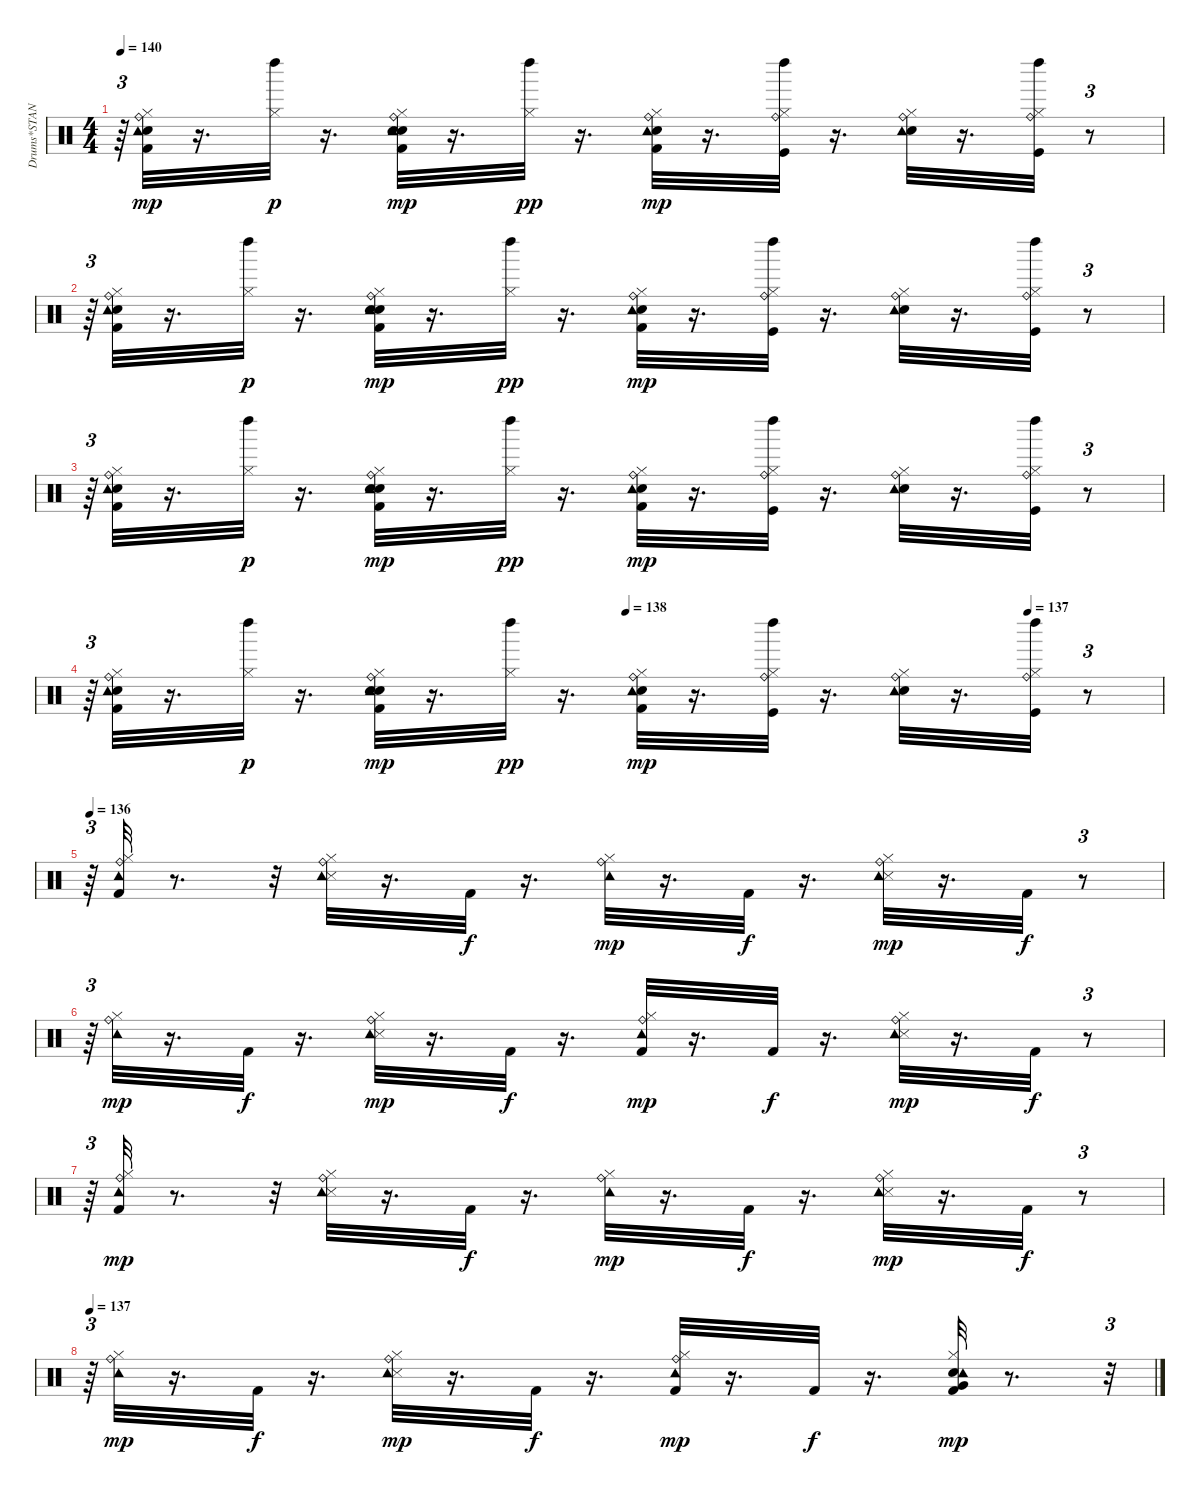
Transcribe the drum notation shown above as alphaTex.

\track ("Drums*STANDARD      " "Drums*STAN") {instrument percussion}
\staff {score}
\articulation defaults
\ts (4 4)
\tempo 140
\clef neutral
\ks c
r.64{tu (3 2) dy mp} ("Kick (hit) 2" "Snare (hit) 2" "Hi-Hat (closed)" "Ride (bell)" "Tambourine (hit)").32 r.16{d} ("Hi-Hat (closed)" "Left Maraca (hit)").32{dy p} r.16{d} ("Kick (hit) 2" "Snare (hit) 2" "Hi-Hat (closed)" "Hand Clap (hit)" "Ride (bell)" "Tambourine (hit)").32{dy mp} r.16{d} ("Hi-Hat (closed)" "Left Maraca (hit)").32{dy pp} r.16{d} ("Kick (hit) 2" "Snare (hit) 2" "Hi-Hat (closed)" "Ride (bell)" "Tambourine (hit)").32{dy mp} r.16{d} ("Hi-Hat (closed)" "Left Maraca (hit)" "Kick (hit)" "Ride (bell)").32 r.16{d} ("Snare (hit) 2" "Hi-Hat (closed)" "Ride (bell)" "Tambourine (hit)").32 r.16{d} ("Hi-Hat (closed)" "Left Maraca (hit)" "Kick (hit)" "Ride (bell)").32 r.8{tu (3 2)} |
r.64{tu (3 2)} ("Kick (hit) 2" "Snare (hit) 2" "Hi-Hat (closed)" "Ride (bell)" "Tambourine (hit)").32 r.16{d} ("Hi-Hat (closed)" "Left Maraca (hit)").32{dy p} r.16{d} ("Kick (hit) 2" "Snare (hit) 2" "Hi-Hat (closed)" "Hand Clap (hit)" "Ride (bell)" "Tambourine (hit)").32{dy mp} r.16{d} ("Hi-Hat (closed)" "Left Maraca (hit)").32{dy pp} r.16{d} ("Kick (hit) 2" "Snare (hit) 2" "Hi-Hat (closed)" "Ride (bell)" "Tambourine (hit)").32{dy mp} r.16{d} ("Hi-Hat (closed)" "Left Maraca (hit)" "Kick (hit)" "Ride (bell)").32 r.16{d} ("Snare (hit) 2" "Hi-Hat (closed)" "Ride (bell)" "Tambourine (hit)").32 r.16{d} ("Hi-Hat (closed)" "Left Maraca (hit)" "Kick (hit)" "Ride (bell)").32 r.8{tu (3 2)} |
r.64{tu (3 2)} ("Kick (hit) 2" "Snare (hit) 2" "Hi-Hat (closed)" "Ride (bell)" "Tambourine (hit)").32 r.16{d} ("Hi-Hat (closed)" "Left Maraca (hit)").32{dy p} r.16{d} ("Kick (hit) 2" "Snare (hit) 2" "Hi-Hat (closed)" "Hand Clap (hit)" "Ride (bell)" "Tambourine (hit)").32{dy mp} r.16{d} ("Hi-Hat (closed)" "Left Maraca (hit)").32{dy pp} r.16{d} ("Kick (hit) 2" "Snare (hit) 2" "Hi-Hat (closed)" "Ride (bell)" "Tambourine (hit)").32{dy mp} r.16{d} ("Hi-Hat (closed)" "Left Maraca (hit)" "Kick (hit)" "Ride (bell)").32 r.16{d} ("Snare (hit) 2" "Hi-Hat (closed)" "Ride (bell)" "Tambourine (hit)").32 r.16{d} ("Hi-Hat (closed)" "Left Maraca (hit)" "Kick (hit)" "Ride (bell)").32 r.8{tu (3 2)} |
\tempo (138 0.5)
\tempo (137 0.875)
r.64{tu (3 2)} ("Kick (hit) 2" "Snare (hit) 2" "Hi-Hat (closed)" "Ride (bell)" "Tambourine (hit)").32 r.16{d} ("Hi-Hat (closed)" "Left Maraca (hit)").32{dy p} r.16{d} ("Kick (hit) 2" "Snare (hit) 2" "Hi-Hat (closed)" "Hand Clap (hit)" "Ride (bell)" "Tambourine (hit)").32{dy mp} r.16{d} ("Hi-Hat (closed)" "Left Maraca (hit)").32{dy pp} r.16{d} ("Kick (hit) 2" "Snare (hit) 2" "Hi-Hat (closed)" "Ride (bell)" "Tambourine (hit)").32{dy mp} r.16{d} ("Hi-Hat (closed)" "Left Maraca (hit)" "Kick (hit)" "Ride (bell)").32 r.16{d} ("Snare (hit) 2" "Hi-Hat (closed)" "Ride (bell)" "Tambourine (hit)").32 r.16{d} ("Hi-Hat (closed)" "Left Maraca (hit)" "Kick (hit)" "Ride (bell)").32 r.8{tu (3 2)} |
\tempo 136
r.64{tu (3 2)} ("Kick (hit) 2" "Hi-Hat (closed)" "Ride (bell)" "Tambourine (hit)").32 r.8{d} r.32 ("Hi-Hat (closed)" "Snare (side stick) 3" "Ride (bell)" "Tambourine (hit)").32 r.16{d} "Kick (hit) 2".32{dy f} r.16{d} ("Hi-Hat (closed)" "Ride (bell)" "Tambourine (hit)").32{dy mp} r.16{d} "Kick (hit) 2".32{dy f} r.16{d} ("Hi-Hat (closed)" "Snare (side stick) 3" "Ride (bell)" "Tambourine (hit)").32{dy mp} r.16{d} "Kick (hit) 2".32{dy f} r.8{tu (3 2)} |
r.64{tu (3 2)} ("Hi-Hat (closed)" "Ride (bell)" "Tambourine (hit)").32{dy mp} r.16{d} "Kick (hit) 2".32{dy f} r.16{d} ("Hi-Hat (closed)" "Snare (side stick) 3" "Ride (bell)" "Tambourine (hit)").32{dy mp} r.16{d} "Kick (hit) 2".32{dy f} r.16{d} ("Kick (hit) 2" "Hi-Hat (closed)" "Ride (bell)" "Tambourine (hit)").32{dy mp} r.16{d} "Kick (hit) 2".32{dy f} r.16{d} ("Hi-Hat (closed)" "Snare (side stick) 3" "Ride (bell)" "Tambourine (hit)").32{dy mp} r.16{d} "Kick (hit) 2".32{dy f} r.8{tu (3 2)} |
r.64{tu (3 2)} ("Kick (hit) 2" "Hi-Hat (closed)" "Ride (bell)" "Tambourine (hit)").32{dy mp} r.8{d} r.32 ("Hi-Hat (closed)" "Snare (side stick) 3" "Ride (bell)" "Tambourine (hit)").32 r.16{d} "Kick (hit) 2".32{dy f} r.16{d} ("Hi-Hat (closed)" "Ride (bell)" "Tambourine (hit)").32{dy mp} r.16{d} "Kick (hit) 2".32{dy f} r.16{d} ("Hi-Hat (closed)" "Snare (side stick) 3" "Ride (bell)" "Tambourine (hit)").32{dy mp} r.16{d} "Kick (hit) 2".32{dy f} r.8{tu (3 2)} |
\tempo 137
r.64{tu (3 2)} ("Hi-Hat (closed)" "Ride (bell)" "Tambourine (hit)").32{dy mp} r.16{d} "Kick (hit) 2".32{dy f} r.16{d} ("Hi-Hat (closed)" "Snare (side stick) 3" "Ride (bell)" "Tambourine (hit)").32{dy mp} r.16{d} "Kick (hit) 2".32{dy f} r.16{d} ("Kick (hit) 2" "Hi-Hat (closed)" "Ride (bell)" "Tambourine (hit)").32{dy mp} r.16{d} "Kick (hit) 2".32{dy f} r.16{d} ("Kick (hit) 2" "Snare (hit) 2" "Hi-Hat (closed)" "Very Low Tom (hit)" "Tambourine (hit)").32{dy mp} r.8{d} r.32{tu (3 2)}
